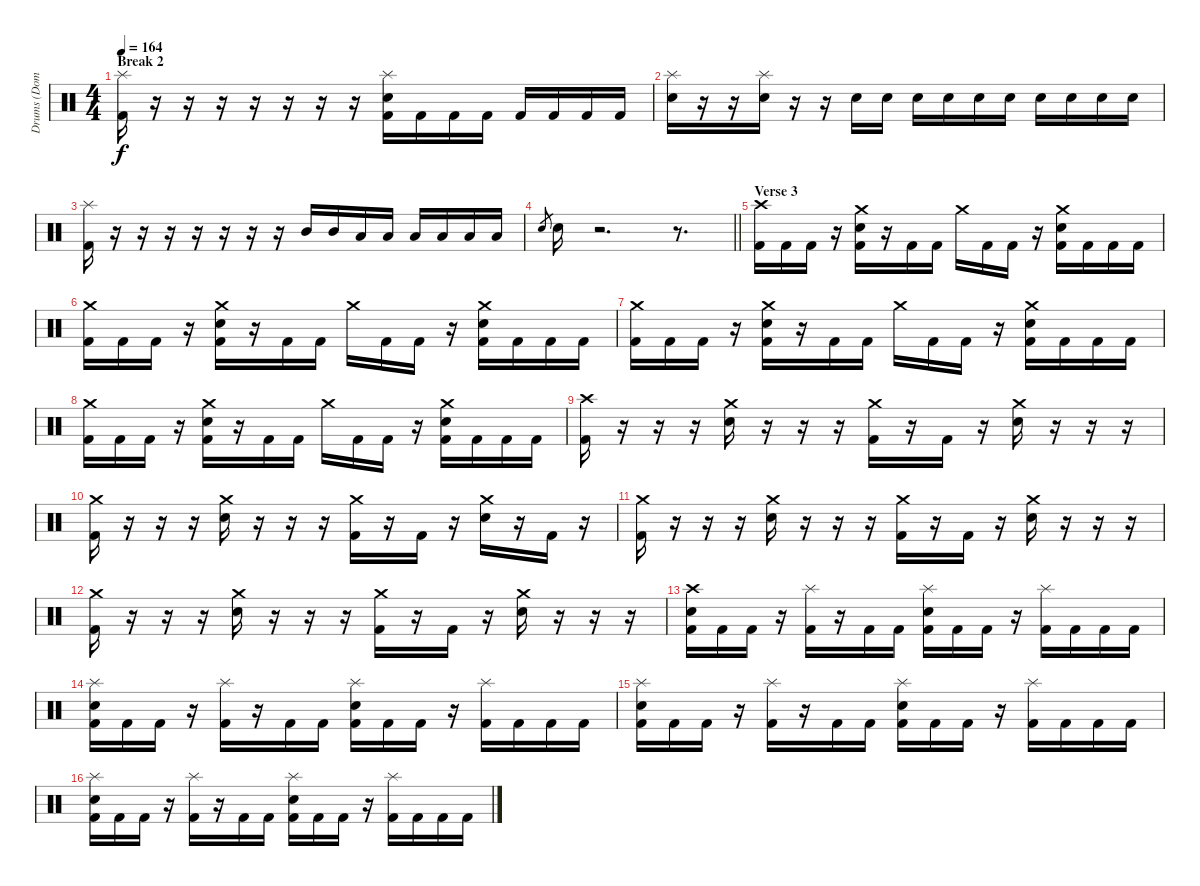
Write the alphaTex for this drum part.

\track ("Drums (Dominik)" "Drums (Dom") {instrument percussion}
\staff {score}
\articulation defaults
\ts (4 4)
\section ("" "Break 2")
\tempo 164
\clef neutral
\ks c
("Splash (hit)" "Kick (hit) 2").16{dy f} r.16 r.16 r.16 r.16 r.16 r.16 r.16 ("Splash (hit)" "Electric Snare (hit)" "Kick (hit) 2").16 "Kick (hit) 2".16 "Kick (hit) 2".16 "Kick (hit) 2".16 "Kick (hit) 2".16 "Kick (hit) 2".16 "Kick (hit) 2".16 "Kick (hit) 2".16 |
("Splash (hit)" "Electric Snare (hit)").16 r.16 r.16 ("Splash (hit)" "Electric Snare (hit)").16 r.16 r.16 "Electric Snare (hit)".16 "Electric Snare (hit)".16 "Electric Snare (hit)".16 "Electric Snare (hit)".16 "Electric Snare (hit)".16 "Electric Snare (hit)".16 "Electric Snare (hit)".16 "Electric Snare (hit)".16 "Electric Snare (hit)".16 "Electric Snare (hit)".16 |
("Splash (hit)" "Kick (hit) 2").16 r.16 r.16 r.16 r.16 r.16 r.16 r.16 "Mid Tom (hit)".16 "Mid Tom (hit)".16 "Low Tom (hit)".16 "Low Tom (hit)".16 "Low Floor Tom (hit)".16 "Low Floor Tom (hit)".16 "Low Floor Tom (hit)".16 "Low Floor Tom (hit)".16 |
\barLineRight lightlight "Electric Snare (hit)".8{gr} "Electric Snare (hit)".16
r.2{d} r.8{d} |
\section ("" "Verse 3")
("Crash high (hit)" "Kick (hit) 2").16 "Kick (hit) 2".16 "Kick (hit) 2".16 r.16 ("Crash medium (hit)" "Electric Snare (hit)" "Kick (hit) 2").16 r.16 "Kick (hit) 2".16 "Kick (hit) 2".16 "Crash medium (hit)".16 "Kick (hit) 2".16 "Kick (hit) 2".16 r.16 ("Crash medium (hit)" "Electric Snare (hit)" "Kick (hit) 2").16 "Kick (hit) 2".16 "Kick (hit) 2".16 "Kick (hit) 2".16 |
("Crash medium (hit)" "Kick (hit) 2").16 "Kick (hit) 2".16 "Kick (hit) 2".16 r.16 ("Crash medium (hit)" "Electric Snare (hit)" "Kick (hit) 2").16 r.16 "Kick (hit) 2".16 "Kick (hit) 2".16 "Crash medium (hit)".16 "Kick (hit) 2".16 "Kick (hit) 2".16 r.16 ("Crash medium (hit)" "Electric Snare (hit)" "Kick (hit) 2").16 "Kick (hit) 2".16 "Kick (hit) 2".16 "Kick (hit) 2".16 |
("Crash medium (hit)" "Kick (hit) 2").16 "Kick (hit) 2".16 "Kick (hit) 2".16 r.16 ("Crash medium (hit)" "Electric Snare (hit)" "Kick (hit) 2").16 r.16 "Kick (hit) 2".16 "Kick (hit) 2".16 "Crash medium (hit)".16 "Kick (hit) 2".16 "Kick (hit) 2".16 r.16 ("Crash medium (hit)" "Electric Snare (hit)" "Kick (hit) 2").16 "Kick (hit) 2".16 "Kick (hit) 2".16 "Kick (hit) 2".16 |
("Crash medium (hit)" "Kick (hit) 2").16 "Kick (hit) 2".16 "Kick (hit) 2".16 r.16 ("Crash medium (hit)" "Electric Snare (hit)" "Kick (hit) 2").16 r.16 "Kick (hit) 2".16 "Kick (hit) 2".16 "Crash medium (hit)".16 "Kick (hit) 2".16 "Kick (hit) 2".16 r.16 ("Crash medium (hit)" "Electric Snare (hit)" "Kick (hit) 2").16 "Kick (hit) 2".16 "Kick (hit) 2".16 "Kick (hit) 2".16 |
("Crash high (hit)" "Kick (hit) 2").16 r.16 r.16 r.16 ("Crash medium (hit)" "Electric Snare (hit)").16 r.16 r.16 r.16 ("Crash medium (hit)" "Kick (hit) 2").16 r.16 "Kick (hit) 2".16 r.16 ("Crash medium (hit)" "Electric Snare (hit)").16 r.16 r.16 r.16 |
("Crash medium (hit)" "Kick (hit) 2").16 r.16 r.16 r.16 ("Crash medium (hit)" "Electric Snare (hit)").16 r.16 r.16 r.16 ("Crash medium (hit)" "Kick (hit) 2").16 r.16 "Kick (hit) 2".16 r.16 ("Crash medium (hit)" "Electric Snare (hit)").16 r.16 "Kick (hit) 2".16 r.16 |
("Crash medium (hit)" "Kick (hit) 2").16 r.16 r.16 r.16 ("Crash medium (hit)" "Electric Snare (hit)").16 r.16 r.16 r.16 ("Crash medium (hit)" "Kick (hit) 2").16 r.16 "Kick (hit) 2".16 r.16 ("Crash medium (hit)" "Electric Snare (hit)").16 r.16 r.16 r.16 |
("Crash medium (hit)" "Kick (hit) 2").16 r.16 r.16 r.16 ("Crash medium (hit)" "Electric Snare (hit)").16 r.16 r.16 r.16 ("Crash medium (hit)" "Kick (hit) 2").16 r.16 "Kick (hit) 2".16 r.16 ("Crash medium (hit)" "Electric Snare (hit)").16 r.16 r.16 r.16 |
("Crash high (hit)" "Electric Snare (hit)" "Kick (hit) 2").16 "Kick (hit) 2".16 "Kick (hit) 2".16 r.16 ("Splash (hit)" "Kick (hit) 2").16 r.16 "Kick (hit) 2".16 "Kick (hit) 2".16 ("Splash (hit)" "Electric Snare (hit)" "Kick (hit) 2").16 "Kick (hit) 2".16 "Kick (hit) 2".16 r.16 ("Splash (hit)" "Kick (hit) 2").16 "Kick (hit) 2".16 "Kick (hit) 2".16 "Kick (hit) 2".16 |
("Splash (hit)" "Electric Snare (hit)" "Kick (hit) 2").16 "Kick (hit) 2".16 "Kick (hit) 2".16 r.16 ("Splash (hit)" "Kick (hit) 2").16 r.16 "Kick (hit) 2".16 "Kick (hit) 2".16 ("Splash (hit)" "Electric Snare (hit)" "Kick (hit) 2").16 "Kick (hit) 2".16 "Kick (hit) 2".16 r.16 ("Splash (hit)" "Kick (hit) 2").16 "Kick (hit) 2".16 "Kick (hit) 2".16 "Kick (hit) 2".16 |
("Splash (hit)" "Electric Snare (hit)" "Kick (hit) 2").16 "Kick (hit) 2".16 "Kick (hit) 2".16 r.16 ("Splash (hit)" "Kick (hit) 2").16 r.16 "Kick (hit) 2".16 "Kick (hit) 2".16 ("Splash (hit)" "Electric Snare (hit)" "Kick (hit) 2").16 "Kick (hit) 2".16 "Kick (hit) 2".16 r.16 ("Splash (hit)" "Kick (hit) 2").16 "Kick (hit) 2".16 "Kick (hit) 2".16 "Kick (hit) 2".16 |
("Splash (hit)" "Electric Snare (hit)" "Kick (hit) 2").16 "Kick (hit) 2".16 "Kick (hit) 2".16 r.16 ("Splash (hit)" "Kick (hit) 2").16 r.16 "Kick (hit) 2".16 "Kick (hit) 2".16 ("Splash (hit)" "Electric Snare (hit)" "Kick (hit) 2").16 "Kick (hit) 2".16 "Kick (hit) 2".16 r.16 ("Splash (hit)" "Kick (hit) 2").16 "Kick (hit) 2".16 "Kick (hit) 2".16 "Kick (hit) 2".16
